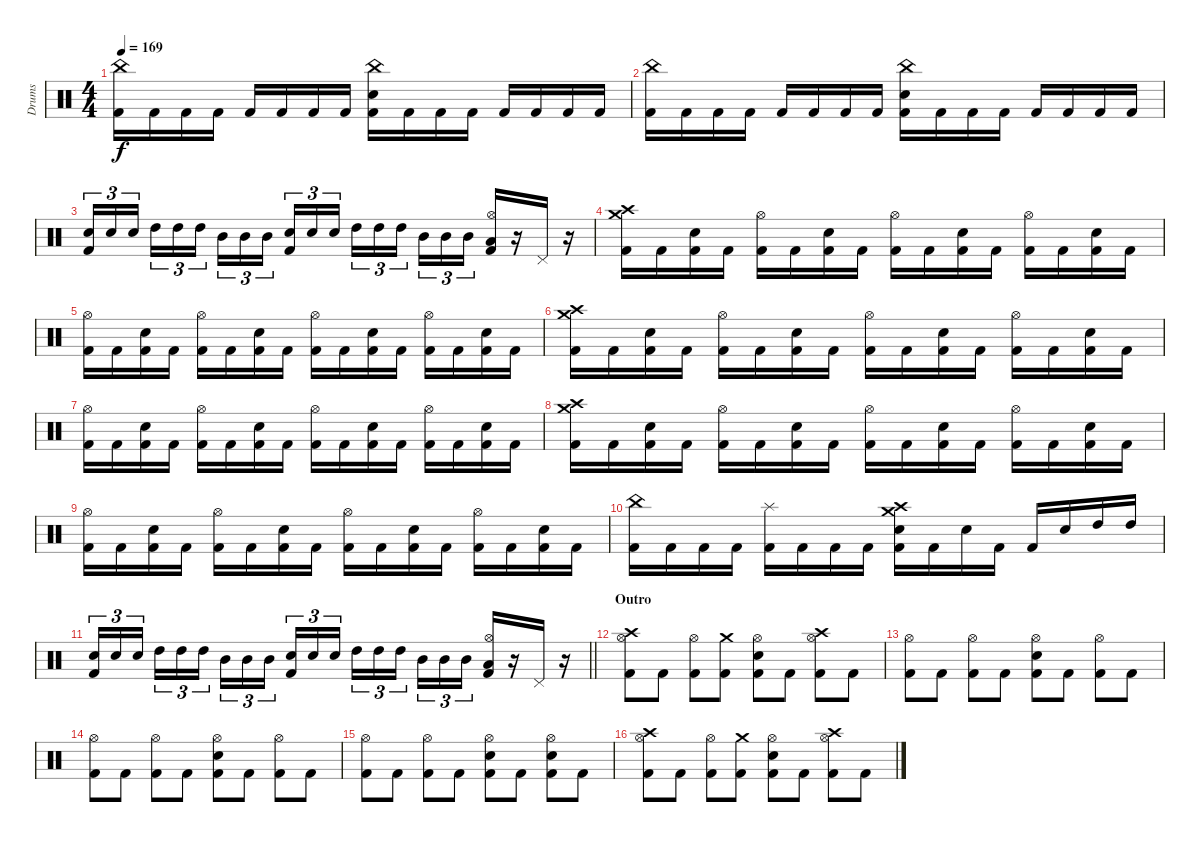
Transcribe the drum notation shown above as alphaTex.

\track ("Drums" "Drums") {instrument percussion}
\staff {score}
\articulation defaults
\ts (4 4)
\tempo 169
\clef neutral
\ks c
("China (hit)" "Kick (hit) 2").16{dy f} "Kick (hit) 2".16 "Kick (hit) 2".16 "Kick (hit) 2".16 "Kick (hit) 2".16 "Kick (hit) 2".16 "Kick (hit) 2".16 "Kick (hit) 2".16 ("China (hit)" "Snare (hit) 2" "Kick (hit) 2").16 "Kick (hit) 2".16 "Kick (hit) 2".16 "Kick (hit) 2".16 "Kick (hit) 2".16 "Kick (hit) 2".16 "Kick (hit) 2".16 "Kick (hit) 2".16 |
("China (hit)" "Kick (hit) 2").16 "Kick (hit) 2".16 "Kick (hit) 2".16 "Kick (hit) 2".16 "Kick (hit) 2".16 "Kick (hit) 2".16 "Kick (hit) 2".16 "Kick (hit) 2".16 ("China (hit)" "Snare (hit) 2" "Kick (hit) 2").16 "Kick (hit) 2".16 "Kick (hit) 2".16 "Kick (hit) 2".16 "Kick (hit) 2".16 "Kick (hit) 2".16 "Kick (hit) 2".16 "Kick (hit) 2".16 |
("Snare (hit) 2" "Kick (hit) 2").16{tu (3 2)} "Snare (hit) 2".16{tu (3 2)} "Snare (hit) 2".16{tu (3 2) beam splitsecondary} "High Tom (hit)".16{tu (3 2)} "High Tom (hit)".16{tu (3 2)} "High Tom (hit)".16{tu (3 2)} "Mid Tom (hit)".16{tu (3 2)} "Mid Tom (hit)".16{tu (3 2)} "Mid Tom (hit)".16{tu (3 2) beam splitsecondary} ("Snare (hit) 2" "Kick (hit) 2").16{tu (3 2)} "Snare (hit) 2".16{tu (3 2)} "Snare (hit) 2".16{tu (3 2)} "High Tom (hit)".16{tu (3 2)} "High Tom (hit)".16{tu (3 2)} "High Tom (hit)".16{tu (3 2) beam splitsecondary} "Mid Tom (hit)".16{tu (3 2)} "Mid Tom (hit)".16{tu (3 2)} "Mid Tom (hit)".16{tu (3 2)} ("Hi-Hat (open)" "Low Tom (hit)" "Kick (hit) 2").16 r.16 "Pedal Hi-Hat (hit)".16 r.16 |
("Crash high (hit)" "Crash medium (hit)" "Kick (hit) 2").16 "Kick (hit) 2".16 ("Snare (hit) 2" "Kick (hit) 2").16 "Kick (hit) 2".16 ("Hi-Hat (open)" "Kick (hit) 2").16 "Kick (hit) 2".16 ("Snare (hit) 2" "Kick (hit) 2").16 "Kick (hit) 2".16 ("Hi-Hat (open)" "Kick (hit) 2").16 "Kick (hit) 2".16 ("Snare (hit) 2" "Kick (hit) 2").16 "Kick (hit) 2".16 ("Hi-Hat (open)" "Kick (hit) 2").16 "Kick (hit) 2".16 ("Snare (hit) 2" "Kick (hit) 2").16 "Kick (hit) 2".16 |
("Hi-Hat (open)" "Kick (hit) 2").16 "Kick (hit) 2".16 ("Snare (hit) 2" "Kick (hit) 2").16 "Kick (hit) 2".16 ("Hi-Hat (open)" "Kick (hit) 2").16 "Kick (hit) 2".16 ("Snare (hit) 2" "Kick (hit) 2").16 "Kick (hit) 2".16 ("Hi-Hat (open)" "Kick (hit) 2").16 "Kick (hit) 2".16 ("Snare (hit) 2" "Kick (hit) 2").16 "Kick (hit) 2".16 ("Hi-Hat (open)" "Kick (hit) 2").16 "Kick (hit) 2".16 ("Snare (hit) 2" "Kick (hit) 2").16 "Kick (hit) 2".16 |
("Crash high (hit)" "Crash medium (hit)" "Kick (hit) 2").16 "Kick (hit) 2".16 ("Snare (hit) 2" "Kick (hit) 2").16 "Kick (hit) 2".16 ("Hi-Hat (open)" "Kick (hit) 2").16 "Kick (hit) 2".16 ("Snare (hit) 2" "Kick (hit) 2").16 "Kick (hit) 2".16 ("Hi-Hat (open)" "Kick (hit) 2").16 "Kick (hit) 2".16 ("Snare (hit) 2" "Kick (hit) 2").16 "Kick (hit) 2".16 ("Hi-Hat (open)" "Kick (hit) 2").16 "Kick (hit) 2".16 ("Snare (hit) 2" "Kick (hit) 2").16 "Kick (hit) 2".16 |
("Hi-Hat (open)" "Kick (hit) 2").16 "Kick (hit) 2".16 ("Snare (hit) 2" "Kick (hit) 2").16 "Kick (hit) 2".16 ("Hi-Hat (open)" "Kick (hit) 2").16 "Kick (hit) 2".16 ("Snare (hit) 2" "Kick (hit) 2").16 "Kick (hit) 2".16 ("Hi-Hat (open)" "Kick (hit) 2").16 "Kick (hit) 2".16 ("Snare (hit) 2" "Kick (hit) 2").16 "Kick (hit) 2".16 ("Hi-Hat (open)" "Kick (hit) 2").16 "Kick (hit) 2".16 ("Snare (hit) 2" "Kick (hit) 2").16 "Kick (hit) 2".16 |
("Crash high (hit)" "Crash medium (hit)" "Kick (hit) 2").16 "Kick (hit) 2".16 ("Snare (hit) 2" "Kick (hit) 2").16 "Kick (hit) 2".16 ("Hi-Hat (open)" "Kick (hit) 2").16 "Kick (hit) 2".16 ("Snare (hit) 2" "Kick (hit) 2").16 "Kick (hit) 2".16 ("Hi-Hat (open)" "Kick (hit) 2").16 "Kick (hit) 2".16 ("Snare (hit) 2" "Kick (hit) 2").16 "Kick (hit) 2".16 ("Hi-Hat (open)" "Kick (hit) 2").16 "Kick (hit) 2".16 ("Snare (hit) 2" "Kick (hit) 2").16 "Kick (hit) 2".16 |
("Hi-Hat (open)" "Kick (hit) 2").16 "Kick (hit) 2".16 ("Snare (hit) 2" "Kick (hit) 2").16 "Kick (hit) 2".16 ("Hi-Hat (open)" "Kick (hit) 2").16 "Kick (hit) 2".16 ("Snare (hit) 2" "Kick (hit) 2").16 "Kick (hit) 2".16 ("Hi-Hat (open)" "Kick (hit) 2").16 "Kick (hit) 2".16 ("Snare (hit) 2" "Kick (hit) 2").16 "Kick (hit) 2".16 ("Hi-Hat (open)" "Kick (hit) 2").16 "Kick (hit) 2".16 ("Snare (hit) 2" "Kick (hit) 2").16 "Kick (hit) 2".16 |
("China (hit)" "Kick (hit) 2").16 "Kick (hit) 2".16 "Kick (hit) 2".16 "Kick (hit) 2".16 ("Splash (hit)" "Kick (hit) 2").16 "Kick (hit) 2".16 "Kick (hit) 2".16 "Kick (hit) 2".16 ("Crash medium (hit)" "Crash high (hit)" "Snare (hit) 2" "Kick (hit) 2").16 "Kick (hit) 2".16 "Snare (hit) 2".16 "Kick (hit) 2".16 "Kick (hit) 2".16 "Snare (hit) 2".16 "High Tom (hit)".16 "High Tom (hit)".16 |
\barLineRight lightlight
("Snare (hit) 2" "Kick (hit) 2").16{tu (3 2)} "Snare (hit) 2".16{tu (3 2)} "Snare (hit) 2".16{tu (3 2) beam splitsecondary} "High Tom (hit)".16{tu (3 2)} "High Tom (hit)".16{tu (3 2)} "High Tom (hit)".16{tu (3 2)} "Mid Tom (hit)".16{tu (3 2)} "Mid Tom (hit)".16{tu (3 2)} "Mid Tom (hit)".16{tu (3 2) beam splitsecondary} ("Snare (hit) 2" "Kick (hit) 2").16{tu (3 2)} "Snare (hit) 2".16{tu (3 2)} "Snare (hit) 2".16{tu (3 2)} "High Tom (hit)".16{tu (3 2)} "High Tom (hit)".16{tu (3 2)} "High Tom (hit)".16{tu (3 2) beam splitsecondary} "Mid Tom (hit)".16{tu (3 2)} "Mid Tom (hit)".16{tu (3 2)} "Mid Tom (hit)".16{tu (3 2)} ("Hi-Hat (open)" "Low Tom (hit)" "Kick (hit) 2").16 r.16 "Pedal Hi-Hat (hit)".16 r.16 |
\section ("" "Outro")
("Crash high (hit)" "Hi-Hat (open)" "Kick (hit) 2").8 "Kick (hit) 2".8 ("Hi-Hat (open)" "Kick (hit) 2").8 ("Crash medium (hit)" "Kick (hit) 2").8 ("Hi-Hat (open)" "Snare (hit) 2" "Kick (hit) 2").8 "Kick (hit) 2".8 ("Crash high (hit)" "Hi-Hat (open)" "Kick (hit) 2").8 "Kick (hit) 2".8 |
("Hi-Hat (open)" "Kick (hit) 2").8 "Kick (hit) 2".8 ("Hi-Hat (open)" "Kick (hit) 2").8 "Kick (hit) 2".8 ("Hi-Hat (open)" "Snare (hit) 2" "Kick (hit) 2").8 "Kick (hit) 2".8 ("Hi-Hat (open)" "Kick (hit) 2").8 "Kick (hit) 2".8 |
("Hi-Hat (open)" "Kick (hit) 2").8 "Kick (hit) 2".8 ("Hi-Hat (open)" "Kick (hit) 2").8 "Kick (hit) 2".8 ("Hi-Hat (open)" "Snare (hit) 2" "Kick (hit) 2").8 "Kick (hit) 2".8 ("Hi-Hat (open)" "Kick (hit) 2").8 "Kick (hit) 2".8 |
("Hi-Hat (open)" "Kick (hit) 2").8 "Kick (hit) 2".8 ("Hi-Hat (open)" "Kick (hit) 2").8 "Kick (hit) 2".8 ("Hi-Hat (open)" "Snare (hit) 2" "Kick (hit) 2").8 "Kick (hit) 2".8 ("Hi-Hat (open)" "Snare (hit) 2" "Kick (hit) 2").8 "Kick (hit) 2".8 |
("Crash high (hit)" "Hi-Hat (open)" "Kick (hit) 2").8 "Kick (hit) 2".8 ("Hi-Hat (open)" "Kick (hit) 2").8 ("Crash medium (hit)" "Kick (hit) 2").8 ("Hi-Hat (open)" "Snare (hit) 2" "Kick (hit) 2").8 "Kick (hit) 2".8 ("Crash high (hit)" "Hi-Hat (open)" "Kick (hit) 2").8 "Kick (hit) 2".8
